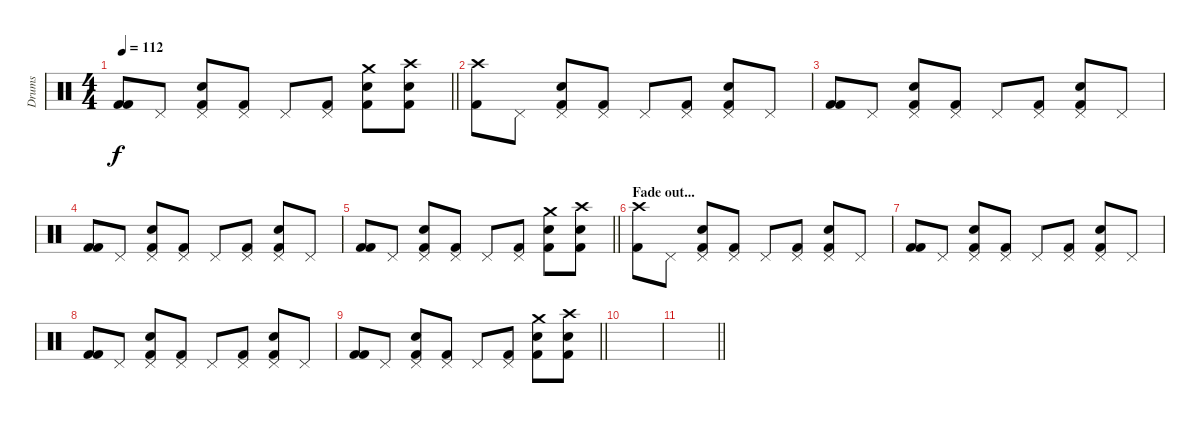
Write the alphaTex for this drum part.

\track ("Drums" "Drums") {instrument percussion}
\staff {score}
\articulation defaults
\ts (4 4)
\tempo 112
\clef neutral
\barLineRight lightlight
\ks c
("Kick (hit) 2" "Kick (hit) 2").8{dy f} "Pedal Hi-Hat (hit)".8 ("Pedal Hi-Hat (hit)" "Snare (hit) 2" "Kick (hit) 2").8 ("Pedal Hi-Hat (hit)" "Kick (hit) 2").8 "Pedal Hi-Hat (hit)".8 ("Pedal Hi-Hat (hit)" "Kick (hit) 2").8 ("Kick (hit) 2" "Snare (hit) 2" "Crash medium (hit)").8 ("Kick (hit) 2" "Snare (hit) 2" "Crash high (hit)").8 |
("Kick (hit) 2" "Crash high (hit)").8 "Pedal Hi-Hat (hit)".8 ("Pedal Hi-Hat (hit)" "Snare (hit) 2" "Kick (hit) 2").8 ("Pedal Hi-Hat (hit)" "Kick (hit) 2").8 "Pedal Hi-Hat (hit)".8 ("Pedal Hi-Hat (hit)" "Kick (hit) 2").8 ("Pedal Hi-Hat (hit)" "Snare (hit) 2" "Kick (hit) 2").8 "Pedal Hi-Hat (hit)".8 |
("Kick (hit) 2" "Kick (hit) 2").8 "Pedal Hi-Hat (hit)".8 ("Pedal Hi-Hat (hit)" "Snare (hit) 2" "Kick (hit) 2").8 ("Pedal Hi-Hat (hit)" "Kick (hit) 2").8 "Pedal Hi-Hat (hit)".8 ("Pedal Hi-Hat (hit)" "Kick (hit) 2").8 ("Pedal Hi-Hat (hit)" "Snare (hit) 2" "Kick (hit) 2").8 "Pedal Hi-Hat (hit)".8 |
("Kick (hit) 2" "Kick (hit) 2").8 "Pedal Hi-Hat (hit)".8 ("Pedal Hi-Hat (hit)" "Snare (hit) 2" "Kick (hit) 2").8 ("Pedal Hi-Hat (hit)" "Kick (hit) 2").8 "Pedal Hi-Hat (hit)".8 ("Pedal Hi-Hat (hit)" "Kick (hit) 2").8 ("Pedal Hi-Hat (hit)" "Snare (hit) 2" "Kick (hit) 2").8 "Pedal Hi-Hat (hit)".8 |
\barLineRight lightlight
("Kick (hit) 2" "Kick (hit) 2").8 "Pedal Hi-Hat (hit)".8 ("Pedal Hi-Hat (hit)" "Snare (hit) 2" "Kick (hit) 2").8 ("Pedal Hi-Hat (hit)" "Kick (hit) 2").8 "Pedal Hi-Hat (hit)".8 ("Pedal Hi-Hat (hit)" "Kick (hit) 2").8 ("Kick (hit) 2" "Snare (hit) 2" "Crash medium (hit)").8 ("Kick (hit) 2" "Snare (hit) 2" "Crash high (hit)").8 |
\section ("" "Fade out...")
("Kick (hit) 2" "Crash high (hit)").8 "Pedal Hi-Hat (hit)".8 ("Pedal Hi-Hat (hit)" "Snare (hit) 2" "Kick (hit) 2").8 ("Pedal Hi-Hat (hit)" "Kick (hit) 2").8 "Pedal Hi-Hat (hit)".8 ("Pedal Hi-Hat (hit)" "Kick (hit) 2").8 ("Pedal Hi-Hat (hit)" "Snare (hit) 2" "Kick (hit) 2").8 "Pedal Hi-Hat (hit)".8 |
("Kick (hit) 2" "Kick (hit) 2").8 "Pedal Hi-Hat (hit)".8 ("Pedal Hi-Hat (hit)" "Snare (hit) 2" "Kick (hit) 2").8 ("Pedal Hi-Hat (hit)" "Kick (hit) 2").8 "Pedal Hi-Hat (hit)".8 ("Pedal Hi-Hat (hit)" "Kick (hit) 2").8 ("Pedal Hi-Hat (hit)" "Snare (hit) 2" "Kick (hit) 2").8 "Pedal Hi-Hat (hit)".8 |
("Kick (hit) 2" "Kick (hit) 2").8 "Pedal Hi-Hat (hit)".8 ("Pedal Hi-Hat (hit)" "Snare (hit) 2" "Kick (hit) 2").8 ("Pedal Hi-Hat (hit)" "Kick (hit) 2").8 "Pedal Hi-Hat (hit)".8 ("Pedal Hi-Hat (hit)" "Kick (hit) 2").8 ("Pedal Hi-Hat (hit)" "Snare (hit) 2" "Kick (hit) 2").8 "Pedal Hi-Hat (hit)".8 |
\barLineRight lightlight
("Kick (hit) 2" "Kick (hit) 2").8 "Pedal Hi-Hat (hit)".8 ("Pedal Hi-Hat (hit)" "Snare (hit) 2" "Kick (hit) 2").8 ("Pedal Hi-Hat (hit)" "Kick (hit) 2").8 "Pedal Hi-Hat (hit)".8 ("Pedal Hi-Hat (hit)" "Kick (hit) 2").8 ("Kick (hit) 2" "Snare (hit) 2" "Crash medium (hit)").8 ("Kick (hit) 2" "Snare (hit) 2" "Crash high (hit)").8 |
|
\barLineRight lightlight
